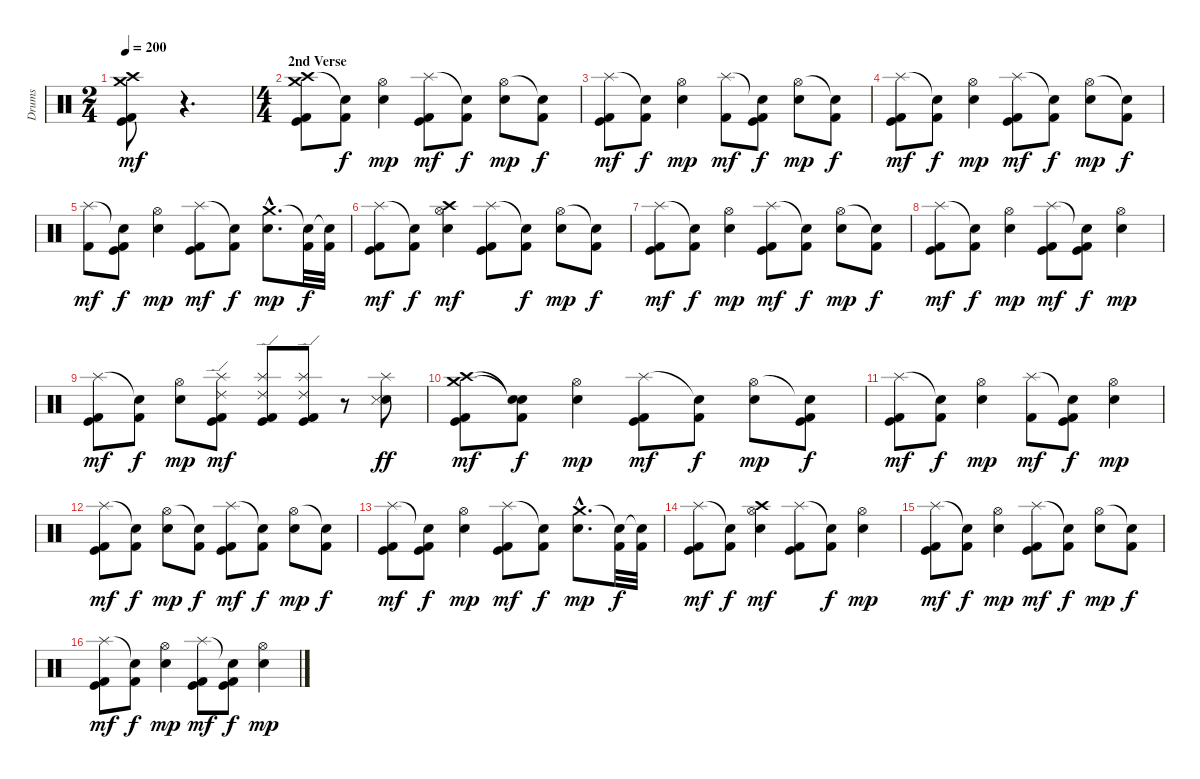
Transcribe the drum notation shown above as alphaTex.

\track ("Drums" "Drums") {instrument percussion}
\staff {score}
\articulation defaults
\ts (2 4)
\tempo 200
\clef neutral
\ks c
("Crash high (hit)" "Crash medium (hit)" "Kick (hit)" "Kick (hit) 2").8{dy mf} r.4{d} |
\ts (4 4)
\section ("" "2nd Verse")
("Crash high (hit)" "Crash medium (hit)" "Kick (hit)" "Kick (hit) 2").8 ("Snare (hit)"{t} "Kick (hit) 2").8{dy f} ("Hi-Hat (open)" "Snare (hit) 2").4{dy mp} ("Splash (hit)" "Kick (hit)" "Kick (hit) 2").8{dy mf} ("Snare (hit)"{t} "Kick (hit) 2").8{dy f} ("Hi-Hat (open)" "Snare (hit) 2").8{dy mp} ("Snare (hit)"{t} "Kick (hit) 2").8{dy f} |
("Splash (hit)" "Kick (hit)" "Kick (hit) 2").8{dy mf} ("Snare (hit)"{t} "Kick (hit) 2").8{dy f} ("Hi-Hat (open)" "Snare (hit) 2").4{dy mp} ("Splash (hit)" "Kick (hit) 2").8{dy mf} ("Snare (hit)"{t} "Kick (hit)" "Kick (hit) 2").8{dy f} ("Hi-Hat (open)" "Snare (hit) 2").8{dy mp} ("Snare (hit)"{t} "Kick (hit) 2").8{dy f} |
("Splash (hit)" "Kick (hit)" "Kick (hit) 2").8{dy mf} ("Snare (hit)"{t} "Kick (hit) 2").8{dy f} ("Hi-Hat (open)" "Snare (hit) 2").4{dy mp} ("Splash (hit)" "Kick (hit)" "Kick (hit) 2").8{dy mf} ("Snare (hit)"{t} "Kick (hit) 2").8{dy f} ("Hi-Hat (open)" "Snare (hit) 2").8{dy mp} ("Snare (hit)"{t} "Kick (hit) 2").8{dy f} |
("Splash (hit)" "Kick (hit) 2").8{dy mf} ("Snare (hit)"{t} "Kick (hit)" "Kick (hit) 2").8{dy f} ("Hi-Hat (open)" "Snare (hit) 2").4{dy mp} ("Splash (hit)" "Kick (hit)" "Kick (hit) 2").8{dy mf} ("Snare (hit)"{t} "Kick (hit) 2").8{dy f} ("Crash medium (hit)"{hac} "Snare (hit) 2"{hac}).8{d dy mp} ("Snare (hit)"{t} "Kick (hit) 2").32{dy f} ("Snare (hit)"{t} "Kick (hit) 2").32 |
("Splash (hit)" "Kick (hit)" "Kick (hit) 2").8{dy mf} ("Snare (hit)"{t} "Kick (hit) 2").8{dy f} ("Crash high (hit)" "Hi-Hat (open)" "Snare (hit) 2").4{dy mf} ("Splash (hit)" "Kick (hit)" "Kick (hit) 2").8 ("Snare (hit)"{t} "Kick (hit) 2").8{dy f} ("Hi-Hat (open)" "Snare (hit) 2").8{dy mp} ("Snare (hit)"{t} "Kick (hit) 2").8{dy f} |
("Splash (hit)" "Kick (hit)" "Kick (hit) 2").8{dy mf} ("Snare (hit)"{t} "Kick (hit) 2").8{dy f} ("Hi-Hat (open)" "Snare (hit) 2").4{dy mp} ("Splash (hit)" "Kick (hit)" "Kick (hit) 2").8{dy mf} ("Snare (hit)"{t} "Kick (hit) 2").8{dy f} ("Hi-Hat (open)" "Snare (hit) 2").8{dy mp} ("Snare (hit)"{t} "Kick (hit) 2").8{dy f} |
("Splash (hit)" "Kick (hit)" "Kick (hit) 2").8{dy mf} ("Snare (hit)"{t} "Kick (hit) 2").8{dy f} ("Hi-Hat (open)" "Snare (hit) 2").4{dy mp} ("Splash (hit)" "Kick (hit)" "Kick (hit) 2").8{dy mf} ("Snare (hit)"{t} "Kick (hit)" "Kick (hit) 2").8{dy f} ("Hi-Hat (open)" "Snare (hit) 2").4{dy mp} |
("Splash (hit)" "Kick (hit)" "Kick (hit) 2").8{dy mf} ("Snare (hit)"{t} "Kick (hit) 2").8{dy f} ("Hi-Hat (open)" "Snare (hit) 2").8{dy mp} ("Splash (hit)" "Ride (edge) 2" "Kick (hit)" "Kick (hit) 2").8{dy mf} ("Splash (hit)" "Ride (edge) 2" "Kick (hit)" "Kick (hit) 2").8 ("Splash (hit)" "Ride (edge) 2" "Kick (hit)" "Kick (hit) 2").8 r.8 ("Splash (hit)" "Snare (hit) 2" "Snare (side stick) 3").8{dy ff} |
("Crash high (hit)" "Crash medium (hit)" "Kick (hit)" "Kick (hit) 2").8{dy mf} ("Snare (hit)"{t} "Snare (hit)"{t} "Kick (hit) 2").8{dy f} ("Hi-Hat (open)" "Snare (hit) 2").4{dy mp} ("Splash (hit)" "Kick (hit)" "Kick (hit) 2").8{dy mf} ("Snare (hit)"{t} "Kick (hit) 2").8{dy f} ("Hi-Hat (open)" "Snare (hit) 2").8{dy mp} ("Snare (hit)"{t} "Kick (hit) 2" "Kick (hit)").8{dy f} |
("Splash (hit)" "Kick (hit)" "Kick (hit) 2").8{dy mf} ("Snare (hit)"{t} "Kick (hit) 2").8{dy f} ("Hi-Hat (open)" "Snare (hit) 2").4{dy mp} ("Splash (hit)" "Kick (hit) 2").8{dy mf} ("Snare (hit)"{t} "Kick (hit)" "Kick (hit) 2").8{dy f} ("Hi-Hat (open)" "Snare (hit) 2").4{dy mp} |
("Splash (hit)" "Kick (hit)" "Kick (hit) 2").8{dy mf} ("Snare (hit)"{t} "Kick (hit) 2").8{dy f} ("Hi-Hat (open)" "Snare (hit) 2").8{dy mp} ("Snare (hit)"{t} "Kick (hit) 2").8{dy f} ("Splash (hit)" "Kick (hit)" "Kick (hit) 2").8{dy mf} ("Snare (hit)"{t} "Kick (hit) 2").8{dy f} ("Hi-Hat (open)" "Snare (hit) 2").8{dy mp} ("Snare (hit)"{t} "Kick (hit) 2").8{dy f} |
("Splash (hit)" "Kick (hit)" "Kick (hit) 2").8{dy mf} ("Snare (hit)"{t} "Kick (hit)" "Kick (hit) 2").8{dy f} ("Hi-Hat (open)" "Snare (hit) 2").4{dy mp} ("Splash (hit)" "Kick (hit)" "Kick (hit) 2").8{dy mf} ("Snare (hit)"{t} "Kick (hit) 2").8{dy f} ("Crash medium (hit)"{hac} "Snare (hit) 2"{hac}).8{d dy mp} ("Snare (hit)"{t} "Kick (hit) 2").32{dy f} ("Snare (hit)"{t} "Kick (hit) 2").32 |
("Splash (hit)" "Kick (hit)" "Kick (hit) 2").8{dy mf} ("Snare (hit)"{t} "Kick (hit) 2").8{dy f} ("Crash high (hit)" "Hi-Hat (open)" "Snare (hit) 2").4{dy mf} ("Splash (hit)" "Kick (hit)" "Kick (hit) 2").8 ("Snare (hit)"{t} "Kick (hit) 2").8{dy f} ("Hi-Hat (open)" "Snare (hit) 2").4{dy mp} |
("Splash (hit)" "Kick (hit)" "Kick (hit) 2").8{dy mf} ("Snare (hit)"{t} "Kick (hit) 2").8{dy f} ("Hi-Hat (open)" "Snare (hit) 2").4{dy mp} ("Splash (hit)" "Kick (hit)" "Kick (hit) 2").8{dy mf} ("Snare (hit)"{t} "Kick (hit) 2").8{dy f} ("Hi-Hat (open)" "Snare (hit) 2").8{dy mp} ("Snare (hit)"{t} "Kick (hit) 2").8{dy f} |
("Splash (hit)" "Kick (hit)" "Kick (hit) 2").8{dy mf} ("Snare (hit)"{t} "Kick (hit) 2").8{dy f} ("Hi-Hat (open)" "Snare (hit) 2").4{dy mp} ("Splash (hit)" "Kick (hit)" "Kick (hit) 2").8{dy mf} ("Snare (hit)"{t} "Kick (hit)" "Kick (hit) 2").8{dy f} ("Hi-Hat (open)" "Snare (hit) 2").4{dy mp}
